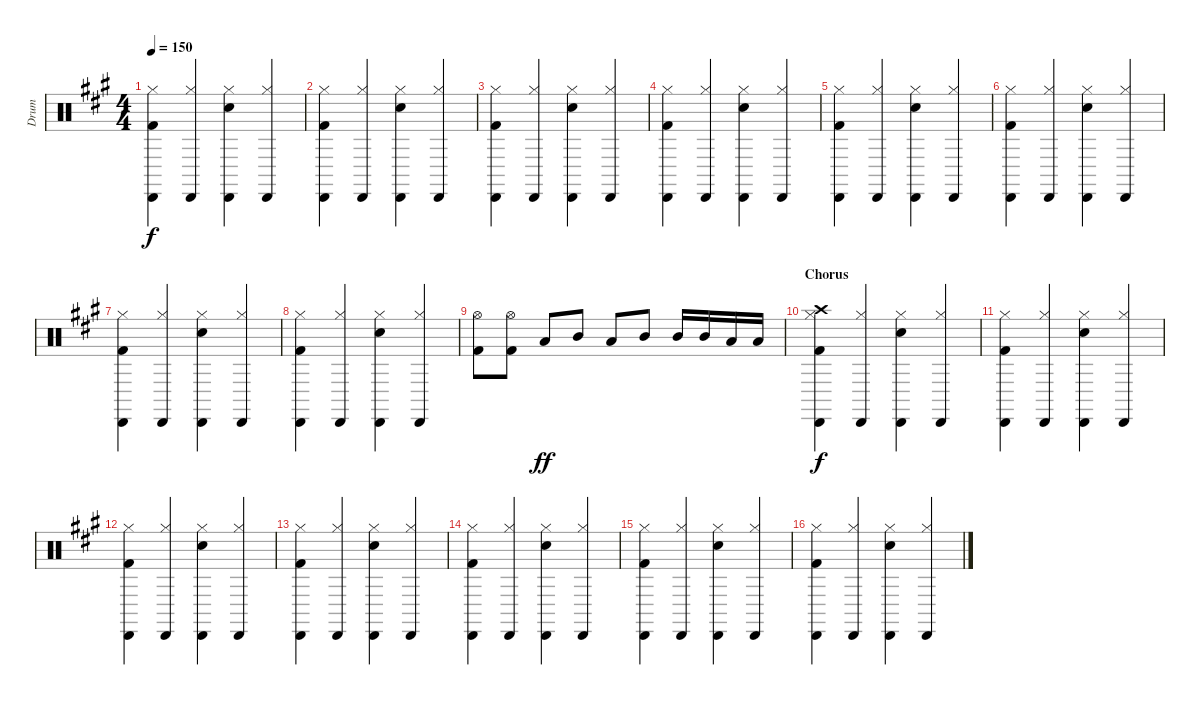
\track ("Drum " "Drum ") {instrument percussion}
\staff {score}
\articulation defaults
\ts (4 4)
\tempo 150
\clef neutral
\ks a
("Hi-Hat (closed)" "Cabasa (hit)" "Kick (hit) 2").4{dy f} ("Hi-Hat (closed)" "Cabasa (hit)").4 ("Hi-Hat (closed)" "Snare (hit) 2" "Cabasa (hit)").4 ("Hi-Hat (closed)" "Cabasa (hit)").4 |
("Hi-Hat (closed)" "Cabasa (hit)" "Kick (hit) 2").4 ("Hi-Hat (closed)" "Cabasa (hit)").4 ("Hi-Hat (closed)" "Snare (hit) 2" "Cabasa (hit)").4 ("Hi-Hat (closed)" "Cabasa (hit)").4 |
("Hi-Hat (closed)" "Cabasa (hit)" "Kick (hit) 2").4 ("Hi-Hat (closed)" "Cabasa (hit)").4 ("Hi-Hat (closed)" "Snare (hit) 2" "Cabasa (hit)").4 ("Hi-Hat (closed)" "Cabasa (hit)").4 |
("Hi-Hat (closed)" "Cabasa (hit)" "Kick (hit) 2").4 ("Hi-Hat (closed)" "Cabasa (hit)").4 ("Hi-Hat (closed)" "Snare (hit) 2" "Cabasa (hit)").4 ("Hi-Hat (closed)" "Cabasa (hit)").4 |
("Hi-Hat (closed)" "Cabasa (hit)" "Kick (hit) 2").4 ("Hi-Hat (closed)" "Cabasa (hit)").4 ("Hi-Hat (closed)" "Snare (hit) 2" "Cabasa (hit)").4 ("Hi-Hat (closed)" "Cabasa (hit)").4 |
("Hi-Hat (closed)" "Cabasa (hit)" "Kick (hit) 2").4 ("Hi-Hat (closed)" "Cabasa (hit)").4 ("Hi-Hat (closed)" "Snare (hit) 2" "Cabasa (hit)").4 ("Hi-Hat (closed)" "Cabasa (hit)").4 |
("Hi-Hat (closed)" "Cabasa (hit)" "Kick (hit) 2").4 ("Hi-Hat (closed)" "Cabasa (hit)").4 ("Hi-Hat (closed)" "Snare (hit) 2" "Cabasa (hit)").4 ("Hi-Hat (closed)" "Cabasa (hit)").4 |
("Hi-Hat (closed)" "Cabasa (hit)" "Kick (hit) 2").4 ("Hi-Hat (closed)" "Cabasa (hit)").4 ("Hi-Hat (closed)" "Snare (hit) 2" "Cabasa (hit)").4 ("Hi-Hat (closed)" "Cabasa (hit)").4 |
("Hi-Hat (open)" "Kick (hit) 2").8 ("Hi-Hat (open)" "Kick (hit) 2").8 "Low Tom (hit)".8{dy ff} "Mid Tom (hit)".8 "Low Tom (hit)".8 "Mid Tom (hit)".8 "Mid Tom (hit)".16 "Mid Tom (hit)".16 "Low Tom (hit)".16 "Low Tom (hit)".16 |
\section ("" "Chorus")
("Hi-Hat (closed)" "Crash high (hit)" "Cabasa (hit)" "Kick (hit) 2").4{dy f} ("Hi-Hat (closed)" "Cabasa (hit)").4 ("Hi-Hat (closed)" "Snare (hit) 2" "Cabasa (hit)").4 ("Hi-Hat (closed)" "Cabasa (hit)").4 |
("Hi-Hat (closed)" "Cabasa (hit)" "Kick (hit) 2").4 ("Hi-Hat (closed)" "Cabasa (hit)").4 ("Hi-Hat (closed)" "Snare (hit) 2" "Cabasa (hit)").4 ("Hi-Hat (closed)" "Cabasa (hit)").4 |
("Hi-Hat (closed)" "Cabasa (hit)" "Kick (hit) 2").4 ("Hi-Hat (closed)" "Cabasa (hit)").4 ("Hi-Hat (closed)" "Snare (hit) 2" "Cabasa (hit)").4 ("Hi-Hat (closed)" "Cabasa (hit)").4 |
("Hi-Hat (closed)" "Cabasa (hit)" "Kick (hit) 2").4 ("Hi-Hat (closed)" "Cabasa (hit)").4 ("Hi-Hat (closed)" "Snare (hit) 2" "Cabasa (hit)").4 ("Hi-Hat (closed)" "Cabasa (hit)").4 |
("Hi-Hat (closed)" "Cabasa (hit)" "Kick (hit) 2").4 ("Hi-Hat (closed)" "Cabasa (hit)").4 ("Hi-Hat (closed)" "Snare (hit) 2" "Cabasa (hit)").4 ("Hi-Hat (closed)" "Cabasa (hit)").4 |
("Hi-Hat (closed)" "Cabasa (hit)" "Kick (hit) 2").4 ("Hi-Hat (closed)" "Cabasa (hit)").4 ("Hi-Hat (closed)" "Snare (hit) 2" "Cabasa (hit)").4 ("Hi-Hat (closed)" "Cabasa (hit)").4 |
("Hi-Hat (closed)" "Cabasa (hit)" "Kick (hit) 2").4 ("Hi-Hat (closed)" "Cabasa (hit)").4 ("Hi-Hat (closed)" "Snare (hit) 2" "Cabasa (hit)").4 ("Hi-Hat (closed)" "Cabasa (hit)").4
